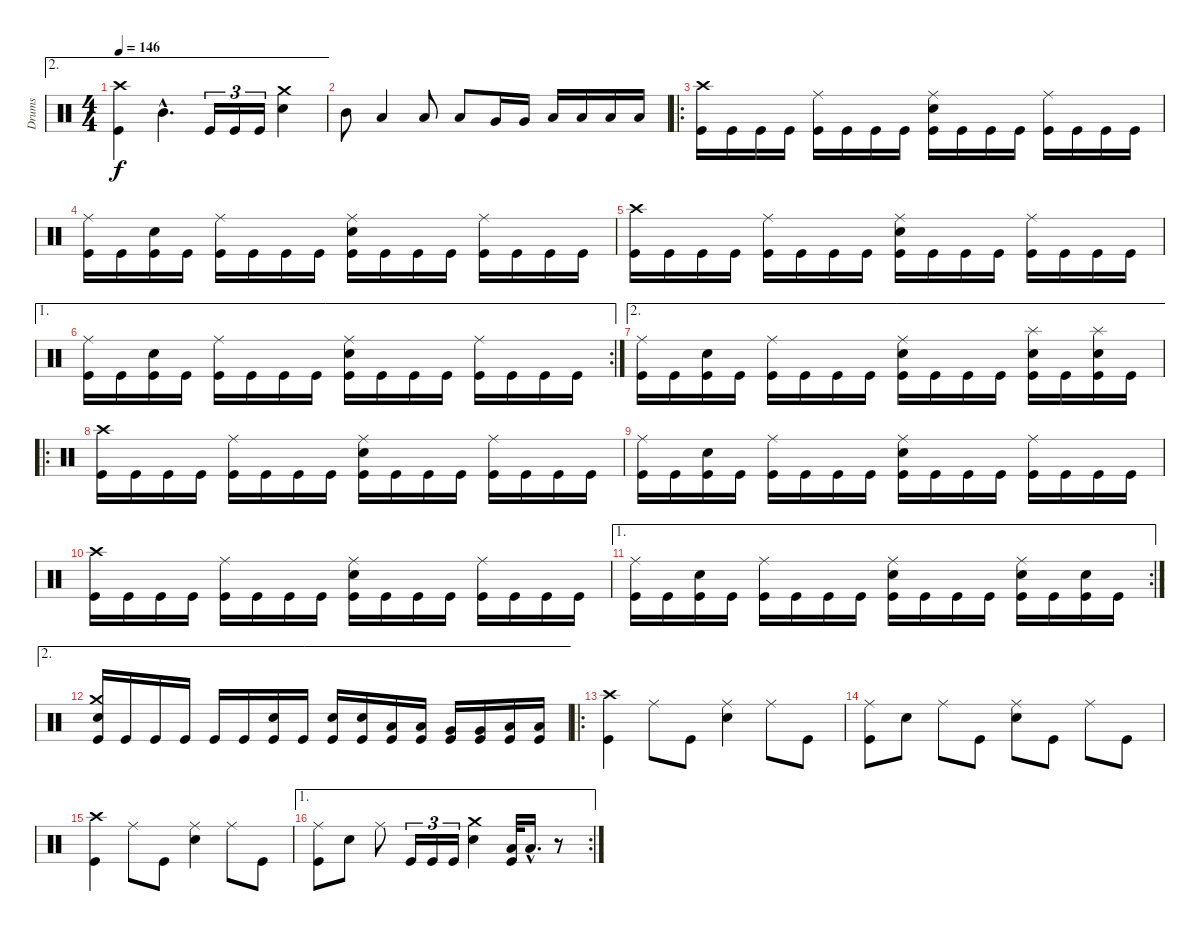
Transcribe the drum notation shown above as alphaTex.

\track ("Drums" "Drums") {instrument percussion}
\staff {score}
\articulation defaults
\ae 2
\ts (4 4)
\tempo 146
\clef neutral
\ks c
("Crash high (hit)" "Kick (hit)").4{dy f} "Mid Tom (hit)"{hac}.4{d} "Kick (hit)".16{tu (3 2)} "Kick (hit)".16{tu (3 2)} "Kick (hit)".16{tu (3 2)} ("Crash medium (hit)" "Electric Snare (hit)").4 |
"Mid Tom (hit)".8 "Low Tom (hit)".4 "Low Tom (hit)".8 "Low Tom (hit)".8 "Very Low Tom (hit)".16 "Very Low Tom (hit)".16 "Low Floor Tom (hit)".16 "Low Floor Tom (hit)".16 "Low Floor Tom (hit)".16 "Low Floor Tom (hit)".16 |
\ro
("Crash high (hit)" "Kick (hit)").16 "Kick (hit)".16 "Kick (hit)".16 "Kick (hit)".16 ("Ride (middle)" "Kick (hit)").16 "Kick (hit)".16 "Kick (hit)".16 "Kick (hit)".16 ("Ride (middle)" "Electric Snare (hit)" "Kick (hit)").16 "Kick (hit)".16 "Kick (hit)".16 "Kick (hit)".16 ("Ride (middle)" "Kick (hit)").16 "Kick (hit)".16 "Kick (hit)".16 "Kick (hit)".16 |
("Ride (middle)" "Kick (hit)").16 "Kick (hit)".16 ("Electric Snare (hit)" "Kick (hit)").16 "Kick (hit)".16 ("Ride (middle)" "Kick (hit)").16 "Kick (hit)".16 "Kick (hit)".16 "Kick (hit)".16 ("Ride (middle)" "Electric Snare (hit)" "Kick (hit)").16 "Kick (hit)".16 "Kick (hit)".16 "Kick (hit)".16 ("Ride (middle)" "Kick (hit)").16 "Kick (hit)".16 "Kick (hit)".16 "Kick (hit)".16 |
("Crash high (hit)" "Kick (hit)").16 "Kick (hit)".16 "Kick (hit)".16 "Kick (hit)".16 ("Ride (middle)" "Kick (hit)").16 "Kick (hit)".16 "Kick (hit)".16 "Kick (hit)".16 ("Ride (middle)" "Electric Snare (hit)" "Kick (hit)").16 "Kick (hit)".16 "Kick (hit)".16 "Kick (hit)".16 ("Ride (middle)" "Kick (hit)").16 "Kick (hit)".16 "Kick (hit)".16 "Kick (hit)".16 |
\ae 1
\rc 2
("Ride (middle)" "Kick (hit)").16 "Kick (hit)".16 ("Electric Snare (hit)" "Kick (hit)").16 "Kick (hit)".16 ("Ride (middle)" "Kick (hit)").16 "Kick (hit)".16 "Kick (hit)".16 "Kick (hit)".16 ("Ride (middle)" "Electric Snare (hit)" "Kick (hit)").16 "Kick (hit)".16 "Kick (hit)".16 "Kick (hit)".16 ("Ride (middle)" "Kick (hit)").16 "Kick (hit)".16 "Kick (hit)".16 "Kick (hit)".16 |
\ae 2
("Ride (middle)" "Kick (hit)").16 "Kick (hit)".16 ("Electric Snare (hit)" "Kick (hit)").16 "Kick (hit)".16 ("Ride (middle)" "Kick (hit)").16 "Kick (hit)".16 "Kick (hit)".16 "Kick (hit)".16 ("Ride (middle)" "Electric Snare (hit)" "Kick (hit)").16 "Kick (hit)".16 "Kick (hit)".16 "Kick (hit)".16 ("Splash (hit)" "Electric Snare (hit)" "Kick (hit)").16 "Kick (hit)".16 ("Splash (hit)" "Electric Snare (hit)" "Kick (hit)").16 "Kick (hit)".16 |
\ro
("Crash high (hit)" "Kick (hit)").16 "Kick (hit)".16 "Kick (hit)".16 "Kick (hit)".16 ("Ride (middle)" "Kick (hit)").16 "Kick (hit)".16 "Kick (hit)".16 "Kick (hit)".16 ("Ride (middle)" "Electric Snare (hit)" "Kick (hit)").16 "Kick (hit)".16 "Kick (hit)".16 "Kick (hit)".16 ("Ride (middle)" "Kick (hit)").16 "Kick (hit)".16 "Kick (hit)".16 "Kick (hit)".16 |
("Ride (middle)" "Kick (hit)").16 "Kick (hit)".16 ("Electric Snare (hit)" "Kick (hit)").16 "Kick (hit)".16 ("Ride (middle)" "Kick (hit)").16 "Kick (hit)".16 "Kick (hit)".16 "Kick (hit)".16 ("Ride (middle)" "Electric Snare (hit)" "Kick (hit)").16 "Kick (hit)".16 "Kick (hit)".16 "Kick (hit)".16 ("Ride (middle)" "Kick (hit)").16 "Kick (hit)".16 "Kick (hit)".16 "Kick (hit)".16 |
("Crash high (hit)" "Kick (hit)").16 "Kick (hit)".16 "Kick (hit)".16 "Kick (hit)".16 ("Ride (middle)" "Kick (hit)").16 "Kick (hit)".16 "Kick (hit)".16 "Kick (hit)".16 ("Ride (middle)" "Electric Snare (hit)" "Kick (hit)").16 "Kick (hit)".16 "Kick (hit)".16 "Kick (hit)".16 ("Ride (middle)" "Kick (hit)").16 "Kick (hit)".16 "Kick (hit)".16 "Kick (hit)".16 |
\ae 1
\rc 2
("Ride (middle)" "Kick (hit)").16 "Kick (hit)".16 ("Electric Snare (hit)" "Kick (hit)").16 "Kick (hit)".16 ("Ride (middle)" "Kick (hit)").16 "Kick (hit)".16 "Kick (hit)".16 "Kick (hit)".16 ("Ride (middle)" "Electric Snare (hit)" "Kick (hit)").16 "Kick (hit)".16 "Kick (hit)".16 "Kick (hit)".16 ("Ride (middle)" "Electric Snare (hit)" "Kick (hit)").16 "Kick (hit)".16 ("Electric Snare (hit)" "Kick (hit)").16 "Kick (hit)".16 |
\ae 2
("Crash medium (hit)" "Electric Snare (hit)" "Kick (hit)").16 "Kick (hit)".16 "Kick (hit)".16 "Kick (hit)".16 "Kick (hit)".16 "Kick (hit)".16 ("Electric Snare (hit)" "Kick (hit)").16 "Kick (hit)".16 ("Electric Snare (hit)" "Kick (hit)").16 ("Electric Snare (hit)" "Kick (hit)").16 ("Low Tom (hit)" "Kick (hit)").16 ("Low Tom (hit)" "Kick (hit)").16 ("Very Low Tom (hit)" "Kick (hit)").16 ("Very Low Tom (hit)" "Kick (hit)").16 ("Low Floor Tom (hit)" "Kick (hit)").16 ("Low Floor Tom (hit)" "Kick (hit)").16 |
\ro
("Crash high (hit)" "Kick (hit)").4 "Ride (middle)".8 "Kick (hit)".8 ("Ride (middle)" "Electric Snare (hit)").4 "Ride (middle)".8 "Kick (hit)".8 |
("Ride (middle)" "Kick (hit)").8 "Electric Snare (hit)".8 "Ride (middle)".8 "Kick (hit)".8 ("Ride (middle)" "Electric Snare (hit)").8 "Kick (hit)".8 "Ride (middle)".8 "Kick (hit)".8 |
("Crash high (hit)" "Kick (hit)").4 "Ride (middle)".8 "Kick (hit)".8 ("Ride (middle)" "Electric Snare (hit)").4 "Ride (middle)".8 "Kick (hit)".8 |
\ae 1
\rc 2
("Ride (middle)" "Kick (hit)").8 "Electric Snare (hit)".8 "Ride (middle)".8 "Kick (hit)".16{tu (3 2)} "Kick (hit)".16{tu (3 2)} "Kick (hit)".16{tu (3 2)} ("Crash medium (hit)" "Electric Snare (hit)").4 ("Low Floor Tom (hit)" "Kick (hit)").32 "Low Floor Tom (hit)"{hac}.16{d} r.8
